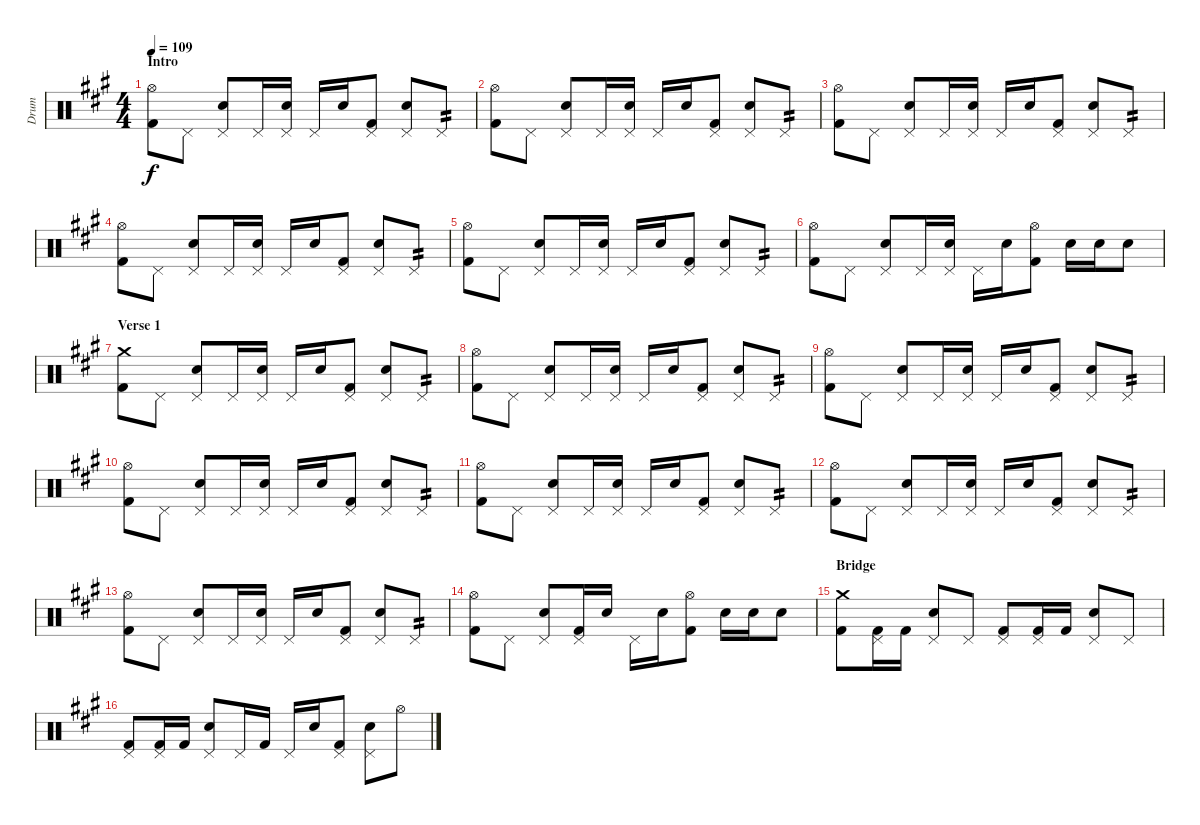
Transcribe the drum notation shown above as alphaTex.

\track ("Drum" "Drum") {instrument percussion}
\staff {score}
\articulation defaults
\ts (4 4)
\section ("" "Intro")
\tempo 109
\clef neutral
\ks f#minor
("Hi-Hat (open)" "Kick (hit) 2").8{dy f} "Pedal Hi-Hat (hit)".8 ("Pedal Hi-Hat (hit)" "Electric Snare (hit)").8 "Pedal Hi-Hat (hit)".16 ("Pedal Hi-Hat (hit)" "Electric Snare (hit)").16 "Pedal Hi-Hat (hit)".16 "Electric Snare (hit)".16 ("Pedal Hi-Hat (hit)" "Kick (hit) 2").8 ("Pedal Hi-Hat (hit)" "Electric Snare (hit)").8 "Pedal Hi-Hat (hit)".8{tp 2} |
("Hi-Hat (open)" "Kick (hit) 2").8 "Pedal Hi-Hat (hit)".8 ("Pedal Hi-Hat (hit)" "Electric Snare (hit)").8 "Pedal Hi-Hat (hit)".16 ("Pedal Hi-Hat (hit)" "Electric Snare (hit)").16 "Pedal Hi-Hat (hit)".16 "Electric Snare (hit)".16 ("Pedal Hi-Hat (hit)" "Kick (hit) 2").8 ("Pedal Hi-Hat (hit)" "Electric Snare (hit)").8 "Pedal Hi-Hat (hit)".8{tp 2} |
("Hi-Hat (open)" "Kick (hit) 2").8 "Pedal Hi-Hat (hit)".8 ("Pedal Hi-Hat (hit)" "Electric Snare (hit)").8 "Pedal Hi-Hat (hit)".16 ("Pedal Hi-Hat (hit)" "Electric Snare (hit)").16 "Pedal Hi-Hat (hit)".16 "Electric Snare (hit)".16 ("Pedal Hi-Hat (hit)" "Kick (hit) 2").8 ("Pedal Hi-Hat (hit)" "Electric Snare (hit)").8 "Pedal Hi-Hat (hit)".8{tp 2} |
("Hi-Hat (open)" "Kick (hit) 2").8 "Pedal Hi-Hat (hit)".8 ("Pedal Hi-Hat (hit)" "Electric Snare (hit)").8 "Pedal Hi-Hat (hit)".16 ("Pedal Hi-Hat (hit)" "Electric Snare (hit)").16 "Pedal Hi-Hat (hit)".16 "Electric Snare (hit)".16 ("Pedal Hi-Hat (hit)" "Kick (hit) 2").8 ("Pedal Hi-Hat (hit)" "Electric Snare (hit)").8 "Pedal Hi-Hat (hit)".8{tp 2} |
("Hi-Hat (open)" "Kick (hit) 2").8 "Pedal Hi-Hat (hit)".8 ("Pedal Hi-Hat (hit)" "Electric Snare (hit)").8 "Pedal Hi-Hat (hit)".16 ("Pedal Hi-Hat (hit)" "Electric Snare (hit)").16 "Pedal Hi-Hat (hit)".16 "Electric Snare (hit)".16 ("Pedal Hi-Hat (hit)" "Kick (hit) 2").8 ("Pedal Hi-Hat (hit)" "Electric Snare (hit)").8 "Pedal Hi-Hat (hit)".8{tp 2} |
("Hi-Hat (open)" "Kick (hit) 2").8 "Pedal Hi-Hat (hit)".8 ("Pedal Hi-Hat (hit)" "Electric Snare (hit)").8 "Pedal Hi-Hat (hit)".16 ("Pedal Hi-Hat (hit)" "Electric Snare (hit)").16 "Pedal Hi-Hat (hit)".16 "Electric Snare (hit)".16 ("Hi-Hat (open)" "Kick (hit) 2").8 "Electric Snare (hit)".16 "Electric Snare (hit)".16 "Electric Snare (hit)".8 |
\section ("" "Verse 1")
("Crash medium (hit)" "Kick (hit) 2").8 "Pedal Hi-Hat (hit)".8 ("Pedal Hi-Hat (hit)" "Electric Snare (hit)").8 "Pedal Hi-Hat (hit)".16 ("Pedal Hi-Hat (hit)" "Electric Snare (hit)").16 "Pedal Hi-Hat (hit)".16 "Electric Snare (hit)".16 ("Pedal Hi-Hat (hit)" "Kick (hit) 2").8 ("Pedal Hi-Hat (hit)" "Electric Snare (hit)").8 "Pedal Hi-Hat (hit)".8{tp 2} |
("Hi-Hat (open)" "Kick (hit) 2").8 "Pedal Hi-Hat (hit)".8 ("Pedal Hi-Hat (hit)" "Electric Snare (hit)").8 "Pedal Hi-Hat (hit)".16 ("Pedal Hi-Hat (hit)" "Electric Snare (hit)").16 "Pedal Hi-Hat (hit)".16 "Electric Snare (hit)".16 ("Pedal Hi-Hat (hit)" "Kick (hit) 2").8 ("Pedal Hi-Hat (hit)" "Electric Snare (hit)").8 "Pedal Hi-Hat (hit)".8{tp 2} |
("Hi-Hat (open)" "Kick (hit) 2").8 "Pedal Hi-Hat (hit)".8 ("Pedal Hi-Hat (hit)" "Electric Snare (hit)").8 "Pedal Hi-Hat (hit)".16 ("Pedal Hi-Hat (hit)" "Electric Snare (hit)").16 "Pedal Hi-Hat (hit)".16 "Electric Snare (hit)".16 ("Pedal Hi-Hat (hit)" "Kick (hit) 2").8 ("Pedal Hi-Hat (hit)" "Electric Snare (hit)").8 "Pedal Hi-Hat (hit)".8{tp 2} |
("Hi-Hat (open)" "Kick (hit) 2").8 "Pedal Hi-Hat (hit)".8 ("Pedal Hi-Hat (hit)" "Electric Snare (hit)").8 "Pedal Hi-Hat (hit)".16 ("Pedal Hi-Hat (hit)" "Electric Snare (hit)").16 "Pedal Hi-Hat (hit)".16 "Electric Snare (hit)".16 ("Pedal Hi-Hat (hit)" "Kick (hit) 2").8 ("Pedal Hi-Hat (hit)" "Electric Snare (hit)").8 "Pedal Hi-Hat (hit)".8{tp 2} |
("Hi-Hat (open)" "Kick (hit) 2").8 "Pedal Hi-Hat (hit)".8 ("Pedal Hi-Hat (hit)" "Electric Snare (hit)").8 "Pedal Hi-Hat (hit)".16 ("Pedal Hi-Hat (hit)" "Electric Snare (hit)").16 "Pedal Hi-Hat (hit)".16 "Electric Snare (hit)".16 ("Pedal Hi-Hat (hit)" "Kick (hit) 2").8 ("Pedal Hi-Hat (hit)" "Electric Snare (hit)").8 "Pedal Hi-Hat (hit)".8{tp 2} |
("Hi-Hat (open)" "Kick (hit) 2").8 "Pedal Hi-Hat (hit)".8 ("Pedal Hi-Hat (hit)" "Electric Snare (hit)").8 "Pedal Hi-Hat (hit)".16 ("Pedal Hi-Hat (hit)" "Electric Snare (hit)").16 "Pedal Hi-Hat (hit)".16 "Electric Snare (hit)".16 ("Pedal Hi-Hat (hit)" "Kick (hit) 2").8 ("Pedal Hi-Hat (hit)" "Electric Snare (hit)").8 "Pedal Hi-Hat (hit)".8{tp 2} |
("Hi-Hat (open)" "Kick (hit) 2").8 "Pedal Hi-Hat (hit)".8 ("Pedal Hi-Hat (hit)" "Electric Snare (hit)").8 "Pedal Hi-Hat (hit)".16 ("Pedal Hi-Hat (hit)" "Electric Snare (hit)").16 "Pedal Hi-Hat (hit)".16 "Electric Snare (hit)".16 ("Pedal Hi-Hat (hit)" "Kick (hit) 2").8 ("Pedal Hi-Hat (hit)" "Electric Snare (hit)").8 "Pedal Hi-Hat (hit)".8{tp 2} |
("Hi-Hat (open)" "Kick (hit) 2").8 "Pedal Hi-Hat (hit)".8 ("Pedal Hi-Hat (hit)" "Electric Snare (hit)").8 ("Pedal Hi-Hat (hit)" "Kick (hit) 2").16 "Electric Snare (hit)".16 "Pedal Hi-Hat (hit)".16 "Electric Snare (hit)".16 ("Hi-Hat (open)" "Kick (hit) 2").8 "Electric Snare (hit)".16 "Electric Snare (hit)".16 "Electric Snare (hit)".8 |
\section ("" "Bridge")
("Crash medium (hit)" "Kick (hit) 2").8 ("Pedal Hi-Hat (hit)" "Kick (hit) 2").16 "Kick (hit) 2".16 ("Pedal Hi-Hat (hit)" "Electric Snare (hit)").8 "Pedal Hi-Hat (hit)".8 ("Pedal Hi-Hat (hit)" "Kick (hit) 2").8 ("Pedal Hi-Hat (hit)" "Kick (hit) 2").16 "Kick (hit) 2".16 ("Pedal Hi-Hat (hit)" "Electric Snare (hit)").8 "Pedal Hi-Hat (hit)".8 |
("Pedal Hi-Hat (hit)" "Kick (hit) 2").8 ("Pedal Hi-Hat (hit)" "Kick (hit) 2").16 "Kick (hit) 2".16 ("Pedal Hi-Hat (hit)" "Electric Snare (hit)").8 "Pedal Hi-Hat (hit)".16 "Kick (hit) 2".16 "Pedal Hi-Hat (hit)".16 "Electric Snare (hit)".16 ("Pedal Hi-Hat (hit)" "Kick (hit) 2").8 ("Pedal Hi-Hat (hit)" "Electric Snare (hit)").8 "Hi-Hat (open)".8
